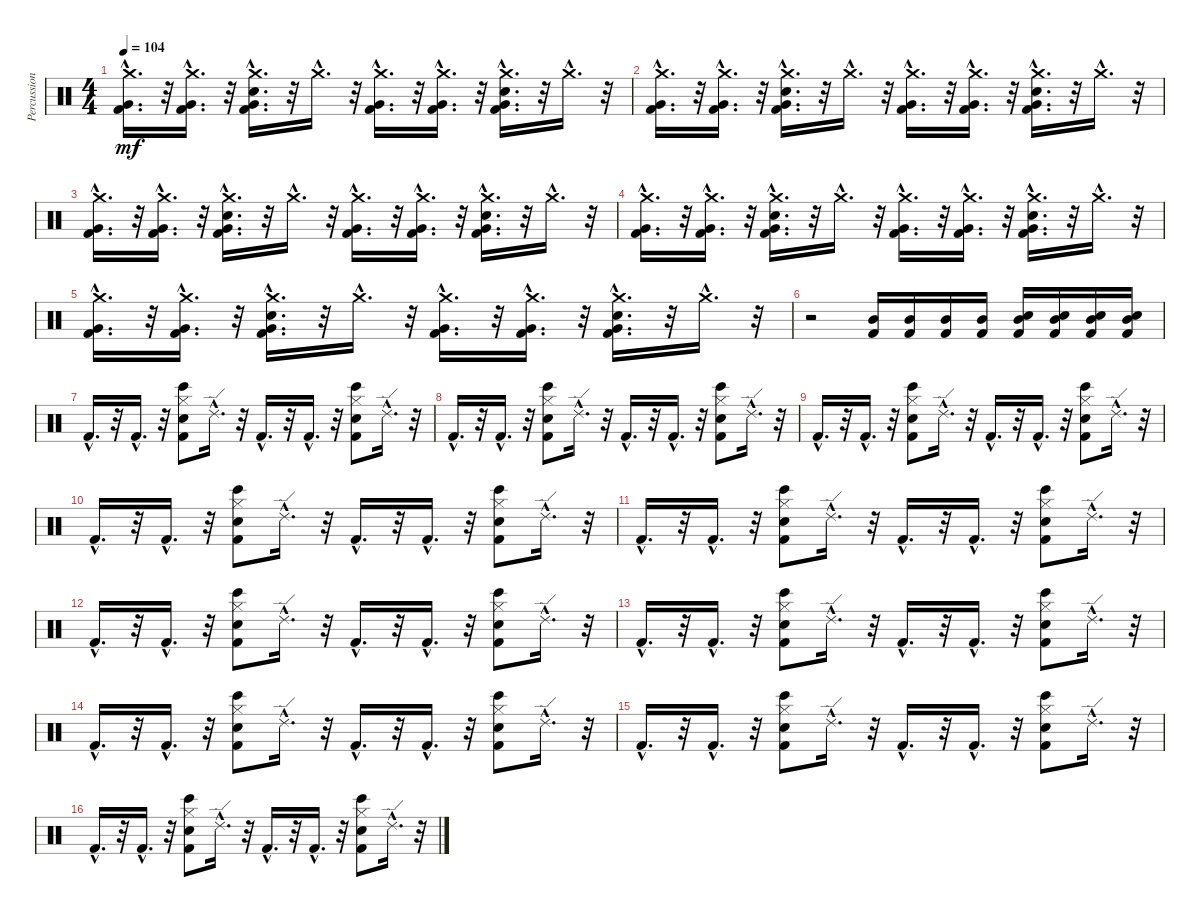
\track ("Percussion" "Percussion") {instrument percussion}
\staff {score}
\articulation defaults
\ts (4 4)
\tempo 104
\clef neutral
\ks c
("Kick (hit) 2"{hac} "Very Low Tom (hit)"{hac} "Crash medium (hit)"{hac}).16{d dy mf} r.32 ("Kick (hit) 2"{hac} "Very Low Tom (hit)"{hac} "Crash medium (hit)"{hac}).16{d} r.32 ("Electric Snare (hit)"{hac} "Kick (hit) 2"{hac} "Crash medium (hit)"{hac} "Very Low Tom (hit)"{hac}).16{d} r.32 "Crash medium (hit)"{hac}.16{d} r.32 ("Kick (hit) 2"{hac} "Very Low Tom (hit)"{hac} "Crash medium (hit)"{hac}).16{d} r.32 ("Kick (hit) 2"{hac} "Very Low Tom (hit)"{hac} "Crash medium (hit)"{hac}).16{d} r.32 ("Electric Snare (hit)"{hac} "Kick (hit) 2"{hac} "Crash medium (hit)"{hac} "Very Low Tom (hit)"{hac}).16{d} r.32 "Crash medium (hit)"{hac}.16{d} r.32 |
("Kick (hit) 2"{hac} "Very Low Tom (hit)"{hac} "Crash medium (hit)"{hac}).16{d} r.32 ("Kick (hit) 2"{hac} "Very Low Tom (hit)"{hac} "Crash medium (hit)"{hac}).16{d} r.32 ("Electric Snare (hit)"{hac} "Kick (hit) 2"{hac} "Crash medium (hit)"{hac} "Very Low Tom (hit)"{hac}).16{d} r.32 "Crash medium (hit)"{hac}.16{d} r.32 ("Kick (hit) 2"{hac} "Very Low Tom (hit)"{hac} "Crash medium (hit)"{hac}).16{d} r.32 ("Kick (hit) 2"{hac} "Very Low Tom (hit)"{hac} "Crash medium (hit)"{hac}).16{d} r.32 ("Electric Snare (hit)"{hac} "Kick (hit) 2"{hac} "Crash medium (hit)"{hac} "Very Low Tom (hit)"{hac}).16{d} r.32 "Crash medium (hit)"{hac}.16{d} r.32 |
("Kick (hit) 2"{hac} "Very Low Tom (hit)"{hac} "Crash medium (hit)"{hac}).16{d} r.32 ("Kick (hit) 2"{hac} "Very Low Tom (hit)"{hac} "Crash medium (hit)"{hac}).16{d} r.32 ("Electric Snare (hit)"{hac} "Kick (hit) 2"{hac} "Crash medium (hit)"{hac} "Very Low Tom (hit)"{hac}).16{d} r.32 "Crash medium (hit)"{hac}.16{d} r.32 ("Kick (hit) 2"{hac} "Very Low Tom (hit)"{hac} "Crash medium (hit)"{hac}).16{d} r.32 ("Kick (hit) 2"{hac} "Very Low Tom (hit)"{hac} "Crash medium (hit)"{hac}).16{d} r.32 ("Electric Snare (hit)"{hac} "Kick (hit) 2"{hac} "Crash medium (hit)"{hac} "Very Low Tom (hit)"{hac}).16{d} r.32 "Crash medium (hit)"{hac}.16{d} r.32 |
("Kick (hit) 2"{hac} "Very Low Tom (hit)"{hac} "Crash medium (hit)"{hac}).16{d} r.32 ("Kick (hit) 2"{hac} "Very Low Tom (hit)"{hac} "Crash medium (hit)"{hac}).16{d} r.32 ("Electric Snare (hit)"{hac} "Kick (hit) 2"{hac} "Crash medium (hit)"{hac} "Very Low Tom (hit)"{hac}).16{d} r.32 "Crash medium (hit)"{hac}.16{d} r.32 ("Kick (hit) 2"{hac} "Very Low Tom (hit)"{hac} "Crash medium (hit)"{hac}).16{d} r.32 ("Kick (hit) 2"{hac} "Very Low Tom (hit)"{hac} "Crash medium (hit)"{hac}).16{d} r.32 ("Electric Snare (hit)"{hac} "Kick (hit) 2"{hac} "Crash medium (hit)"{hac} "Very Low Tom (hit)"{hac}).16{d} r.32 "Crash medium (hit)"{hac}.16{d} r.32 |
("Kick (hit) 2"{hac} "Very Low Tom (hit)"{hac} "Crash medium (hit)"{hac}).16{d} r.32 ("Kick (hit) 2"{hac} "Very Low Tom (hit)"{hac} "Crash medium (hit)"{hac}).16{d} r.32 ("Electric Snare (hit)"{hac} "Kick (hit) 2"{hac} "Crash medium (hit)"{hac} "Very Low Tom (hit)"{hac}).16{d} r.32 "Crash medium (hit)"{hac}.16{d} r.32 ("Kick (hit) 2"{hac} "Very Low Tom (hit)"{hac} "Crash medium (hit)"{hac}).16{d} r.32 ("Kick (hit) 2"{hac} "Very Low Tom (hit)"{hac} "Crash medium (hit)"{hac}).16{d} r.32 ("Electric Snare (hit)"{hac} "Kick (hit) 2"{hac} "Crash medium (hit)"{hac} "Very Low Tom (hit)"{hac}).16{d} r.32 "Crash medium (hit)"{hac}.16{d} r.32 |
r.2 ("Mid Tom (hit)" "Kick (hit) 2").16 ("Mid Tom (hit)" "Kick (hit) 2").16 ("Mid Tom (hit)" "Kick (hit) 2").16 ("Mid Tom (hit)" "Kick (hit) 2").16 ("Mid Tom (hit)" "Kick (hit) 2" "Hand Clap (hit)").16 ("Mid Tom (hit)" "Kick (hit) 2" "Hand Clap (hit)").16 ("Mid Tom (hit)" "Kick (hit) 2" "Hand Clap (hit)").16 ("Mid Tom (hit)" "Kick (hit) 2" "Hand Clap (hit)").16 |
"Kick (hit) 2"{hac}.16{d} r.32 "Kick (hit) 2"{hac}.16{d} r.32 ("Kick (hit) 2" "Hand Clap (hit)" "Hi-Hat (closed)" "Bongo High (hit)").8 "Ride (edge) 2"{hac}.16{d} r.32 "Kick (hit) 2"{hac}.16{d} r.32 "Kick (hit) 2"{hac}.16{d} r.32 ("Bongo High (hit)" "Hi-Hat (closed)" "Hand Clap (hit)" "Kick (hit) 2").8 "Ride (edge) 2"{hac}.16{d} r.32 |
"Kick (hit) 2"{hac}.16{d} r.32 "Kick (hit) 2"{hac}.16{d} r.32 ("Kick (hit) 2" "Hand Clap (hit)" "Hi-Hat (closed)" "Bongo High (hit)").8 "Ride (edge) 2"{hac}.16{d} r.32 "Kick (hit) 2"{hac}.16{d} r.32 "Kick (hit) 2"{hac}.16{d} r.32 ("Bongo High (hit)" "Hi-Hat (closed)" "Hand Clap (hit)" "Kick (hit) 2").8 "Ride (edge) 2"{hac}.16{d} r.32 |
"Kick (hit) 2"{hac}.16{d} r.32 "Kick (hit) 2"{hac}.16{d} r.32 ("Kick (hit) 2" "Hand Clap (hit)" "Hi-Hat (closed)" "Bongo High (hit)").8 "Ride (edge) 2"{hac}.16{d} r.32 "Kick (hit) 2"{hac}.16{d} r.32 "Kick (hit) 2"{hac}.16{d} r.32 ("Bongo High (hit)" "Hi-Hat (closed)" "Hand Clap (hit)" "Kick (hit) 2").8 "Ride (edge) 2"{hac}.16{d} r.32 |
"Kick (hit) 2"{hac}.16{d} r.32 "Kick (hit) 2"{hac}.16{d} r.32 ("Kick (hit) 2" "Hand Clap (hit)" "Hi-Hat (closed)" "Bongo High (hit)").8 "Ride (edge) 2"{hac}.16{d} r.32 "Kick (hit) 2"{hac}.16{d} r.32 "Kick (hit) 2"{hac}.16{d} r.32 ("Bongo High (hit)" "Hi-Hat (closed)" "Hand Clap (hit)" "Kick (hit) 2").8 "Ride (edge) 2"{hac}.16{d} r.32 |
"Kick (hit) 2"{hac}.16{d} r.32 "Kick (hit) 2"{hac}.16{d} r.32 ("Kick (hit) 2" "Hand Clap (hit)" "Hi-Hat (closed)" "Bongo High (hit)").8 "Ride (edge) 2"{hac}.16{d} r.32 "Kick (hit) 2"{hac}.16{d} r.32 "Kick (hit) 2"{hac}.16{d} r.32 ("Bongo High (hit)" "Hi-Hat (closed)" "Hand Clap (hit)" "Kick (hit) 2").8 "Ride (edge) 2"{hac}.16{d} r.32 |
"Kick (hit) 2"{hac}.16{d} r.32 "Kick (hit) 2"{hac}.16{d} r.32 ("Kick (hit) 2" "Hand Clap (hit)" "Hi-Hat (closed)" "Bongo High (hit)").8 "Ride (edge) 2"{hac}.16{d} r.32 "Kick (hit) 2"{hac}.16{d} r.32 "Kick (hit) 2"{hac}.16{d} r.32 ("Bongo High (hit)" "Hi-Hat (closed)" "Hand Clap (hit)" "Kick (hit) 2").8 "Ride (edge) 2"{hac}.16{d} r.32 |
"Kick (hit) 2"{hac}.16{d} r.32 "Kick (hit) 2"{hac}.16{d} r.32 ("Kick (hit) 2" "Hand Clap (hit)" "Hi-Hat (closed)" "Bongo High (hit)").8 "Ride (edge) 2"{hac}.16{d} r.32 "Kick (hit) 2"{hac}.16{d} r.32 "Kick (hit) 2"{hac}.16{d} r.32 ("Bongo High (hit)" "Hi-Hat (closed)" "Hand Clap (hit)" "Kick (hit) 2").8 "Ride (edge) 2"{hac}.16{d} r.32 |
"Kick (hit) 2"{hac}.16{d} r.32 "Kick (hit) 2"{hac}.16{d} r.32 ("Kick (hit) 2" "Hand Clap (hit)" "Hi-Hat (closed)" "Bongo High (hit)").8 "Ride (edge) 2"{hac}.16{d} r.32 "Kick (hit) 2"{hac}.16{d} r.32 "Kick (hit) 2"{hac}.16{d} r.32 ("Bongo High (hit)" "Hi-Hat (closed)" "Hand Clap (hit)" "Kick (hit) 2").8 "Ride (edge) 2"{hac}.16{d} r.32 |
"Kick (hit) 2"{hac}.16{d} r.32 "Kick (hit) 2"{hac}.16{d} r.32 ("Kick (hit) 2" "Hand Clap (hit)" "Hi-Hat (closed)" "Bongo High (hit)").8 "Ride (edge) 2"{hac}.16{d} r.32 "Kick (hit) 2"{hac}.16{d} r.32 "Kick (hit) 2"{hac}.16{d} r.32 ("Hi-Hat (closed)" "Bongo High (hit)" "Hand Clap (hit)" "Kick (hit) 2").8 "Ride (edge) 2"{hac}.16{d} r.32 |
"Kick (hit) 2"{hac}.16{d} r.32 "Kick (hit) 2"{hac}.16{d} r.32 ("Kick (hit) 2" "Hand Clap (hit)" "Hi-Hat (closed)" "Bongo High (hit)").8 "Ride (edge) 2"{hac}.16{d} r.32 "Kick (hit) 2"{hac}.16{d} r.32 "Kick (hit) 2"{hac}.16{d} r.32 ("Bongo High (hit)" "Hi-Hat (closed)" "Hand Clap (hit)" "Kick (hit) 2").8 "Ride (edge) 2"{hac}.16{d} r.32
